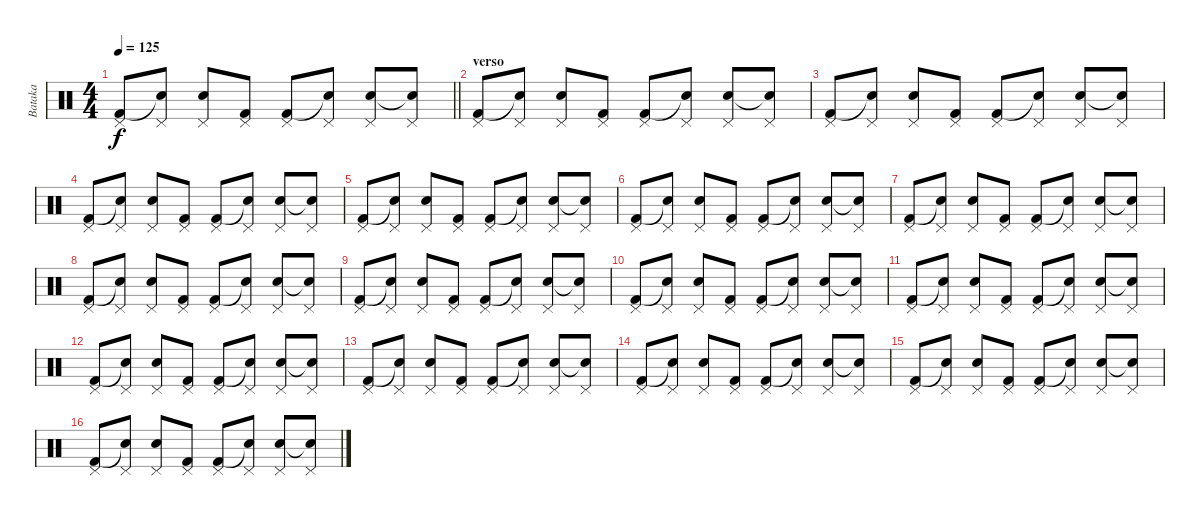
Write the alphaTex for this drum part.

\track ("Bataka" "Bataka") {instrument percussion}
\staff {score}
\articulation defaults
\ts (4 4)
\tempo 125
\clef neutral
\barLineRight lightlight
\ks c
("Pedal Hi-Hat (hit)" "Kick (hit) 2").8{dy f} ("Pedal Hi-Hat (hit)" "Snare (hit)"{t}).8 ("Pedal Hi-Hat (hit)" "Electric Snare (hit)").8 ("Pedal Hi-Hat (hit)" "Kick (hit) 2").8 ("Pedal Hi-Hat (hit)" "Kick (hit) 2").8 ("Pedal Hi-Hat (hit)" "Snare (hit)"{t}).8 ("Pedal Hi-Hat (hit)" "Electric Snare (hit)").8 ("Pedal Hi-Hat (hit)" "Snare (hit)"{t}).8 |
\section ("" "verso")
("Pedal Hi-Hat (hit)" "Kick (hit) 2").8 ("Pedal Hi-Hat (hit)" "Snare (hit)"{t}).8 ("Pedal Hi-Hat (hit)" "Electric Snare (hit)").8 ("Pedal Hi-Hat (hit)" "Kick (hit) 2").8 ("Pedal Hi-Hat (hit)" "Kick (hit) 2").8 ("Pedal Hi-Hat (hit)" "Snare (hit)"{t}).8 ("Pedal Hi-Hat (hit)" "Electric Snare (hit)").8 ("Pedal Hi-Hat (hit)" "Snare (hit)"{t}).8 |
("Pedal Hi-Hat (hit)" "Kick (hit) 2").8 ("Pedal Hi-Hat (hit)" "Snare (hit)"{t}).8 ("Pedal Hi-Hat (hit)" "Electric Snare (hit)").8 ("Pedal Hi-Hat (hit)" "Kick (hit) 2").8 ("Pedal Hi-Hat (hit)" "Kick (hit) 2").8 ("Pedal Hi-Hat (hit)" "Snare (hit)"{t}).8 ("Pedal Hi-Hat (hit)" "Electric Snare (hit)").8 ("Pedal Hi-Hat (hit)" "Snare (hit)"{t}).8 |
("Pedal Hi-Hat (hit)" "Kick (hit) 2").8 ("Pedal Hi-Hat (hit)" "Snare (hit)"{t}).8 ("Pedal Hi-Hat (hit)" "Electric Snare (hit)").8 ("Pedal Hi-Hat (hit)" "Kick (hit) 2").8 ("Pedal Hi-Hat (hit)" "Kick (hit) 2").8 ("Pedal Hi-Hat (hit)" "Snare (hit)"{t}).8 ("Pedal Hi-Hat (hit)" "Electric Snare (hit)").8 ("Pedal Hi-Hat (hit)" "Snare (hit)"{t}).8 |
("Pedal Hi-Hat (hit)" "Kick (hit) 2").8 ("Pedal Hi-Hat (hit)" "Snare (hit)"{t}).8 ("Pedal Hi-Hat (hit)" "Electric Snare (hit)").8 ("Pedal Hi-Hat (hit)" "Kick (hit) 2").8 ("Pedal Hi-Hat (hit)" "Kick (hit) 2").8 ("Pedal Hi-Hat (hit)" "Snare (hit)"{t}).8 ("Pedal Hi-Hat (hit)" "Electric Snare (hit)").8 ("Pedal Hi-Hat (hit)" "Snare (hit)"{t}).8 |
("Pedal Hi-Hat (hit)" "Kick (hit) 2").8 ("Pedal Hi-Hat (hit)" "Snare (hit)"{t}).8 ("Pedal Hi-Hat (hit)" "Electric Snare (hit)").8 ("Pedal Hi-Hat (hit)" "Kick (hit) 2").8 ("Pedal Hi-Hat (hit)" "Kick (hit) 2").8 ("Pedal Hi-Hat (hit)" "Snare (hit)"{t}).8 ("Pedal Hi-Hat (hit)" "Electric Snare (hit)").8 ("Pedal Hi-Hat (hit)" "Snare (hit)"{t}).8 |
("Pedal Hi-Hat (hit)" "Kick (hit) 2").8 ("Pedal Hi-Hat (hit)" "Snare (hit)"{t}).8 ("Pedal Hi-Hat (hit)" "Electric Snare (hit)").8 ("Pedal Hi-Hat (hit)" "Kick (hit) 2").8 ("Pedal Hi-Hat (hit)" "Kick (hit) 2").8 ("Pedal Hi-Hat (hit)" "Snare (hit)"{t}).8 ("Pedal Hi-Hat (hit)" "Electric Snare (hit)").8 ("Pedal Hi-Hat (hit)" "Snare (hit)"{t}).8 |
("Pedal Hi-Hat (hit)" "Kick (hit) 2").8 ("Pedal Hi-Hat (hit)" "Snare (hit)"{t}).8 ("Pedal Hi-Hat (hit)" "Electric Snare (hit)").8 ("Pedal Hi-Hat (hit)" "Kick (hit) 2").8 ("Pedal Hi-Hat (hit)" "Kick (hit) 2").8 ("Pedal Hi-Hat (hit)" "Snare (hit)"{t}).8 ("Pedal Hi-Hat (hit)" "Electric Snare (hit)").8 ("Pedal Hi-Hat (hit)" "Snare (hit)"{t}).8 |
("Pedal Hi-Hat (hit)" "Kick (hit) 2").8 ("Pedal Hi-Hat (hit)" "Snare (hit)"{t}).8 ("Pedal Hi-Hat (hit)" "Electric Snare (hit)").8 ("Pedal Hi-Hat (hit)" "Kick (hit) 2").8 ("Pedal Hi-Hat (hit)" "Kick (hit) 2").8 ("Pedal Hi-Hat (hit)" "Snare (hit)"{t}).8 ("Pedal Hi-Hat (hit)" "Electric Snare (hit)").8 ("Pedal Hi-Hat (hit)" "Snare (hit)"{t}).8 |
("Pedal Hi-Hat (hit)" "Kick (hit) 2").8 ("Pedal Hi-Hat (hit)" "Snare (hit)"{t}).8 ("Pedal Hi-Hat (hit)" "Electric Snare (hit)").8 ("Pedal Hi-Hat (hit)" "Kick (hit) 2").8 ("Pedal Hi-Hat (hit)" "Kick (hit) 2").8 ("Pedal Hi-Hat (hit)" "Snare (hit)"{t}).8 ("Pedal Hi-Hat (hit)" "Electric Snare (hit)").8 ("Pedal Hi-Hat (hit)" "Snare (hit)"{t}).8 |
("Pedal Hi-Hat (hit)" "Kick (hit) 2").8 ("Pedal Hi-Hat (hit)" "Snare (hit)"{t}).8 ("Pedal Hi-Hat (hit)" "Electric Snare (hit)").8 ("Pedal Hi-Hat (hit)" "Kick (hit) 2").8 ("Pedal Hi-Hat (hit)" "Kick (hit) 2").8 ("Pedal Hi-Hat (hit)" "Snare (hit)"{t}).8 ("Pedal Hi-Hat (hit)" "Electric Snare (hit)").8 ("Pedal Hi-Hat (hit)" "Snare (hit)"{t}).8 |
("Pedal Hi-Hat (hit)" "Kick (hit) 2").8 ("Pedal Hi-Hat (hit)" "Snare (hit)"{t}).8 ("Pedal Hi-Hat (hit)" "Electric Snare (hit)").8 ("Pedal Hi-Hat (hit)" "Kick (hit) 2").8 ("Pedal Hi-Hat (hit)" "Kick (hit) 2").8 ("Pedal Hi-Hat (hit)" "Snare (hit)"{t}).8 ("Pedal Hi-Hat (hit)" "Electric Snare (hit)").8 ("Pedal Hi-Hat (hit)" "Snare (hit)"{t}).8 |
("Pedal Hi-Hat (hit)" "Kick (hit) 2").8 ("Pedal Hi-Hat (hit)" "Snare (hit)"{t}).8 ("Pedal Hi-Hat (hit)" "Electric Snare (hit)").8 ("Pedal Hi-Hat (hit)" "Kick (hit) 2").8 ("Pedal Hi-Hat (hit)" "Kick (hit) 2").8 ("Pedal Hi-Hat (hit)" "Snare (hit)"{t}).8 ("Pedal Hi-Hat (hit)" "Electric Snare (hit)").8 ("Pedal Hi-Hat (hit)" "Snare (hit)"{t}).8 |
("Pedal Hi-Hat (hit)" "Kick (hit) 2").8 ("Pedal Hi-Hat (hit)" "Snare (hit)"{t}).8 ("Pedal Hi-Hat (hit)" "Electric Snare (hit)").8 ("Pedal Hi-Hat (hit)" "Kick (hit) 2").8 ("Pedal Hi-Hat (hit)" "Kick (hit) 2").8 ("Pedal Hi-Hat (hit)" "Snare (hit)"{t}).8 ("Pedal Hi-Hat (hit)" "Electric Snare (hit)").8 ("Pedal Hi-Hat (hit)" "Snare (hit)"{t}).8 |
("Pedal Hi-Hat (hit)" "Kick (hit) 2").8 ("Pedal Hi-Hat (hit)" "Snare (hit)"{t}).8 ("Pedal Hi-Hat (hit)" "Electric Snare (hit)").8 ("Pedal Hi-Hat (hit)" "Kick (hit) 2").8 ("Pedal Hi-Hat (hit)" "Kick (hit) 2").8 ("Pedal Hi-Hat (hit)" "Snare (hit)"{t}).8 ("Pedal Hi-Hat (hit)" "Electric Snare (hit)").8 ("Pedal Hi-Hat (hit)" "Snare (hit)"{t}).8 |
("Pedal Hi-Hat (hit)" "Kick (hit) 2").8 ("Pedal Hi-Hat (hit)" "Snare (hit)"{t}).8 ("Pedal Hi-Hat (hit)" "Electric Snare (hit)").8 ("Pedal Hi-Hat (hit)" "Kick (hit) 2").8 ("Pedal Hi-Hat (hit)" "Kick (hit) 2").8 ("Pedal Hi-Hat (hit)" "Snare (hit)"{t}).8 ("Pedal Hi-Hat (hit)" "Electric Snare (hit)").8 ("Pedal Hi-Hat (hit)" "Snare (hit)"{t}).8
